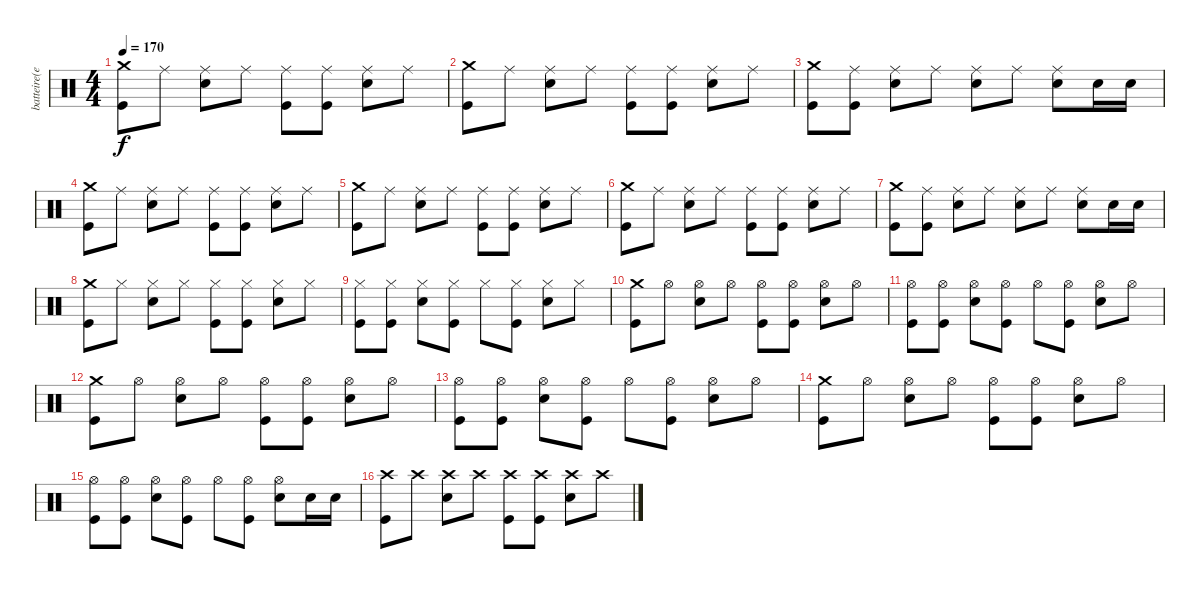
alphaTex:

\track ("batteire(eric)" "batteire(e") {instrument percussion}
\staff {score}
\articulation defaults
\ts (4 4)
\tempo 170
\clef neutral
\ks c
("Crash medium (hit)" "Kick (hit)").8{dy f} "Ride (middle)".8 ("Ride (middle)" "Snare (hit) 2").8 "Ride (middle)".8 ("Ride (middle)" "Kick (hit)").8 ("Ride (middle)" "Kick (hit)").8 ("Ride (middle)" "Snare (hit) 2").8 "Ride (middle)".8 |
("Crash medium (hit)" "Kick (hit)").8 "Ride (middle)".8 ("Ride (middle)" "Snare (hit) 2").8 "Ride (middle)".8 ("Ride (middle)" "Kick (hit)").8 ("Ride (middle)" "Kick (hit)").8 ("Ride (middle)" "Snare (hit) 2").8 "Ride (middle)".8 |
("Crash medium (hit)" "Kick (hit)").8 ("Ride (middle)" "Kick (hit)").8 ("Ride (middle)" "Snare (hit) 2").8 "Ride (middle)".8 ("Ride (middle)" "Snare (hit) 2").8 "Ride (middle)".8 ("Ride (middle)" "Snare (hit) 2").8 "Snare (hit) 2".16 "Snare (hit) 2".16 |
("Crash medium (hit)" "Kick (hit)").8 "Ride (middle)".8 ("Ride (middle)" "Snare (hit) 2").8 "Ride (middle)".8 ("Ride (middle)" "Kick (hit)").8 ("Ride (middle)" "Kick (hit)").8 ("Ride (middle)" "Snare (hit) 2").8 "Ride (middle)".8 |
("Crash medium (hit)" "Kick (hit)").8 "Ride (middle)".8 ("Ride (middle)" "Snare (hit) 2").8 "Ride (middle)".8 ("Ride (middle)" "Kick (hit)").8 ("Ride (middle)" "Kick (hit)").8 ("Ride (middle)" "Snare (hit) 2").8 "Ride (middle)".8 |
("Crash medium (hit)" "Kick (hit)").8 "Ride (middle)".8 ("Ride (middle)" "Snare (hit) 2").8 "Ride (middle)".8 ("Ride (middle)" "Kick (hit)").8 ("Ride (middle)" "Kick (hit)").8 ("Ride (middle)" "Snare (hit) 2").8 "Ride (middle)".8 |
("Crash medium (hit)" "Kick (hit)").8 ("Ride (middle)" "Kick (hit)").8 ("Ride (middle)" "Snare (hit) 2").8 "Ride (middle)".8 ("Ride (middle)" "Snare (hit) 2").8 "Ride (middle)".8 ("Ride (middle)" "Snare (hit) 2").8 "Snare (hit) 2".16 "Snare (hit) 2".16 |
("Crash medium (hit)" "Kick (hit)").8 "Hi-Hat (closed)".8 ("Hi-Hat (closed)" "Snare (hit) 2").8 "Hi-Hat (closed)".8 ("Hi-Hat (closed)" "Kick (hit)").8 ("Hi-Hat (closed)" "Kick (hit)").8 ("Hi-Hat (closed)" "Snare (hit) 2").8 "Hi-Hat (closed)".8 |
("Hi-Hat (closed)" "Kick (hit)").8 ("Hi-Hat (closed)" "Kick (hit)").8 ("Hi-Hat (closed)" "Snare (hit) 2").8 ("Hi-Hat (closed)" "Kick (hit)").8 "Hi-Hat (closed)".8 ("Hi-Hat (closed)" "Kick (hit)").8 ("Hi-Hat (closed)" "Snare (hit) 2").8 "Hi-Hat (closed)".8 |
("Crash medium (hit)" "Kick (hit)").8 "Hi-Hat (open)".8 ("Hi-Hat (open)" "Snare (hit) 2").8 "Hi-Hat (open)".8 ("Hi-Hat (open)" "Kick (hit)").8 ("Hi-Hat (open)" "Kick (hit)").8 ("Hi-Hat (open)" "Snare (hit) 2").8 "Hi-Hat (open)".8 |
("Hi-Hat (open)" "Kick (hit)").8 ("Hi-Hat (open)" "Kick (hit)").8 ("Hi-Hat (open)" "Snare (hit) 2").8 ("Hi-Hat (open)" "Kick (hit)").8 "Hi-Hat (open)".8 ("Hi-Hat (open)" "Kick (hit)").8 ("Hi-Hat (open)" "Snare (hit) 2").8 "Hi-Hat (open)".8 |
("Crash medium (hit)" "Kick (hit)").8 "Hi-Hat (open)".8 ("Hi-Hat (open)" "Snare (hit) 2").8 "Hi-Hat (open)".8 ("Hi-Hat (open)" "Kick (hit)").8 ("Hi-Hat (open)" "Kick (hit)").8 ("Hi-Hat (open)" "Snare (hit) 2").8 "Hi-Hat (open)".8 |
("Hi-Hat (open)" "Kick (hit)").8 ("Hi-Hat (open)" "Kick (hit)").8 ("Hi-Hat (open)" "Snare (hit) 2").8 ("Hi-Hat (open)" "Kick (hit)").8 "Hi-Hat (open)".8 ("Hi-Hat (open)" "Kick (hit)").8 ("Hi-Hat (open)" "Snare (hit) 2").8 "Hi-Hat (open)".8 |
("Crash medium (hit)" "Kick (hit)").8 "Hi-Hat (open)".8 ("Hi-Hat (open)" "Snare (hit) 2").8 "Hi-Hat (open)".8 ("Hi-Hat (open)" "Kick (hit)").8 ("Hi-Hat (open)" "Kick (hit)").8 ("Hi-Hat (open)" "Snare (hit) 2").8 "Hi-Hat (open)".8 |
("Hi-Hat (open)" "Kick (hit)").8 ("Hi-Hat (open)" "Kick (hit)").8 ("Hi-Hat (open)" "Snare (hit) 2").8 ("Hi-Hat (open)" "Kick (hit)").8 "Hi-Hat (open)".8 ("Hi-Hat (open)" "Kick (hit)").8 ("Hi-Hat (open)" "Snare (hit) 2").8 "Snare (hit) 2".16 "Snare (hit) 2".16 |
("Crash high (hit)" "Kick (hit)").8 "Crash high (hit)".8 ("Crash high (hit)" "Snare (hit) 2").8 "Crash high (hit)".8 ("Crash high (hit)" "Kick (hit)").8 ("Crash high (hit)" "Kick (hit)").8 ("Crash high (hit)" "Snare (hit) 2").8 "Crash high (hit)".8
